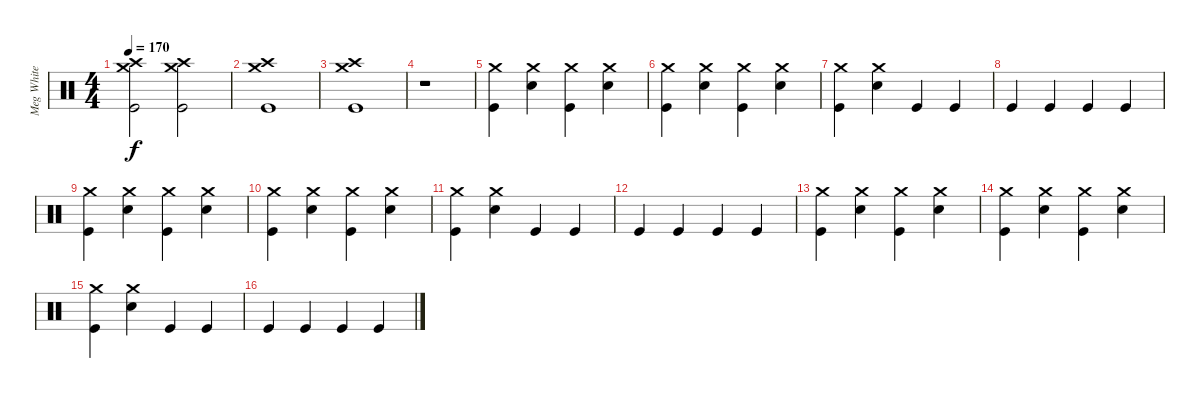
\track ("Meg White" "Meg White") {instrument percussion}
\staff {score}
\articulation defaults
\ts (4 4)
\tempo 170
\clef neutral
\ks c
("Kick (hit)" "Crash high (hit)" "Crash medium (hit)").2{dy f} ("Kick (hit)" "Crash high (hit)" "Crash medium (hit)").2 |
("Kick (hit)" "Crash high (hit)" "Crash medium (hit)").1 |
("Kick (hit)" "Crash high (hit)" "Crash medium (hit)").1 |
r.1 |
("Kick (hit)" "Crash medium (hit)").4 ("Snare (hit) 2" "Crash medium (hit)").4 ("Kick (hit)" "Crash medium (hit)").4 ("Snare (hit) 2" "Crash medium (hit)").4 |
("Kick (hit)" "Crash medium (hit)").4 ("Snare (hit) 2" "Crash medium (hit)").4 ("Kick (hit)" "Crash medium (hit)").4 ("Snare (hit) 2" "Crash medium (hit)").4 |
("Kick (hit)" "Crash medium (hit)").4 ("Snare (hit) 2" "Crash medium (hit)").4 "Kick (hit)".4 "Kick (hit)".4 |
"Kick (hit)".4 "Kick (hit)".4 "Kick (hit)".4 "Kick (hit)".4 |
("Kick (hit)" "Crash medium (hit)").4 ("Snare (hit) 2" "Crash medium (hit)").4 ("Kick (hit)" "Crash medium (hit)").4 ("Snare (hit) 2" "Crash medium (hit)").4 |
("Kick (hit)" "Crash medium (hit)").4 ("Snare (hit) 2" "Crash medium (hit)").4 ("Kick (hit)" "Crash medium (hit)").4 ("Snare (hit) 2" "Crash medium (hit)").4 |
("Kick (hit)" "Crash medium (hit)").4 ("Snare (hit) 2" "Crash medium (hit)").4 "Kick (hit)".4 "Kick (hit)".4 |
"Kick (hit)".4 "Kick (hit)".4 "Kick (hit)".4 "Kick (hit)".4 |
("Kick (hit)" "Crash medium (hit)").4 ("Snare (hit) 2" "Crash medium (hit)").4 ("Kick (hit)" "Crash medium (hit)").4 ("Snare (hit) 2" "Crash medium (hit)").4 |
("Kick (hit)" "Crash medium (hit)").4 ("Snare (hit) 2" "Crash medium (hit)").4 ("Kick (hit)" "Crash medium (hit)").4 ("Snare (hit) 2" "Crash medium (hit)").4 |
("Kick (hit)" "Crash medium (hit)").4 ("Snare (hit) 2" "Crash medium (hit)").4 "Kick (hit)".4 "Kick (hit)".4 |
"Kick (hit)".4 "Kick (hit)".4 "Kick (hit)".4 "Kick (hit)".4
